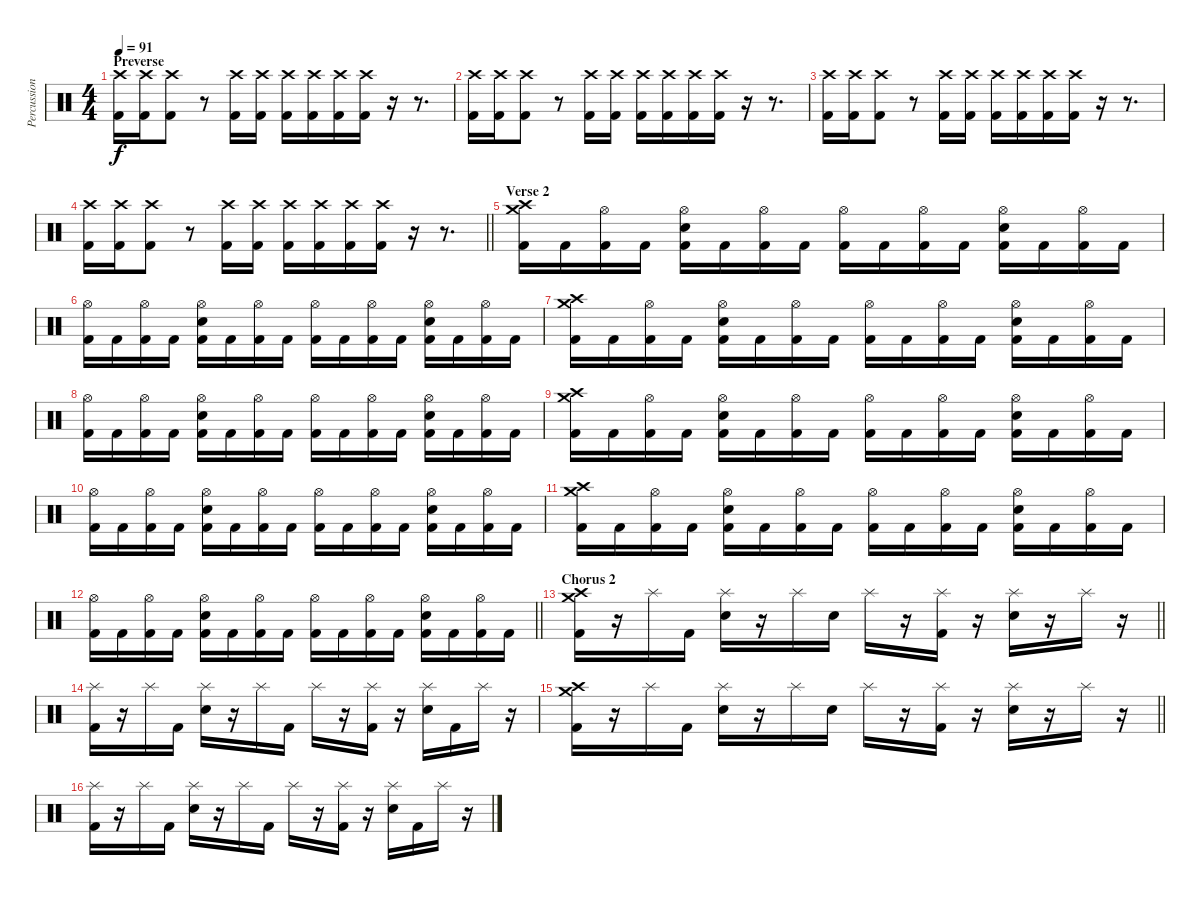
\track ("Percussion" "Percussion") {instrument percussion}
\staff {score}
\articulation defaults
\ts (4 4)
\section ("" "Preverse")
\tempo 91
\clef neutral
\ks c
("Crash high (hit)" "Kick (hit) 2").16{dy f} ("Crash high (hit)" "Kick (hit) 2").16 ("Crash high (hit)" "Kick (hit) 2").8 r.8 ("Crash high (hit)" "Kick (hit) 2").16 ("Crash high (hit)" "Kick (hit) 2").16 ("Crash high (hit)" "Kick (hit) 2").16 ("Crash high (hit)" "Kick (hit) 2").16 ("Crash high (hit)" "Kick (hit) 2").16 ("Crash high (hit)" "Kick (hit) 2").16 r.16 r.8{d} |
("Crash high (hit)" "Kick (hit) 2").16 ("Crash high (hit)" "Kick (hit) 2").16 ("Crash high (hit)" "Kick (hit) 2").8 r.8 ("Crash high (hit)" "Kick (hit) 2").16 ("Crash high (hit)" "Kick (hit) 2").16 ("Crash high (hit)" "Kick (hit) 2").16 ("Crash high (hit)" "Kick (hit) 2").16 ("Crash high (hit)" "Kick (hit) 2").16 ("Crash high (hit)" "Kick (hit) 2").16 r.16 r.8{d} |
("Crash high (hit)" "Kick (hit) 2").16 ("Crash high (hit)" "Kick (hit) 2").16 ("Crash high (hit)" "Kick (hit) 2").8 r.8 ("Crash high (hit)" "Kick (hit) 2").16 ("Crash high (hit)" "Kick (hit) 2").16 ("Crash high (hit)" "Kick (hit) 2").16 ("Crash high (hit)" "Kick (hit) 2").16 ("Crash high (hit)" "Kick (hit) 2").16 ("Crash high (hit)" "Kick (hit) 2").16 r.16 r.8{d} |
\barLineRight lightlight
("Crash high (hit)" "Kick (hit) 2").16 ("Crash high (hit)" "Kick (hit) 2").16 ("Crash high (hit)" "Kick (hit) 2").8 r.8 ("Crash high (hit)" "Kick (hit) 2").16 ("Crash high (hit)" "Kick (hit) 2").16 ("Crash high (hit)" "Kick (hit) 2").16 ("Crash high (hit)" "Kick (hit) 2").16 ("Crash high (hit)" "Kick (hit) 2").16 ("Crash high (hit)" "Kick (hit) 2").16 r.16 r.8{d} |
\section ("" "Verse 2")
("Crash high (hit)" "Crash medium (hit)" "Kick (hit) 2").16 "Kick (hit) 2".16 ("Hi-Hat (open)" "Kick (hit) 2").16 "Kick (hit) 2".16 ("Hi-Hat (open)" "Electric Snare (hit)" "Kick (hit) 2").16 "Kick (hit) 2".16 ("Hi-Hat (open)" "Kick (hit) 2").16 "Kick (hit) 2".16 ("Hi-Hat (open)" "Kick (hit) 2").16 "Kick (hit) 2".16 ("Hi-Hat (open)" "Kick (hit) 2").16 "Kick (hit) 2".16 ("Hi-Hat (open)" "Electric Snare (hit)" "Kick (hit) 2").16 "Kick (hit) 2".16 ("Hi-Hat (open)" "Kick (hit) 2").16 "Kick (hit) 2".16 |
("Hi-Hat (open)" "Kick (hit) 2").16 "Kick (hit) 2".16 ("Hi-Hat (open)" "Kick (hit) 2").16 "Kick (hit) 2".16 ("Hi-Hat (open)" "Electric Snare (hit)" "Kick (hit) 2").16 "Kick (hit) 2".16 ("Hi-Hat (open)" "Kick (hit) 2").16 "Kick (hit) 2".16 ("Hi-Hat (open)" "Kick (hit) 2").16 "Kick (hit) 2".16 ("Hi-Hat (open)" "Kick (hit) 2").16 "Kick (hit) 2".16 ("Hi-Hat (open)" "Electric Snare (hit)" "Kick (hit) 2").16 "Kick (hit) 2".16 ("Hi-Hat (open)" "Kick (hit) 2").16 "Kick (hit) 2".16 |
("Crash high (hit)" "Crash medium (hit)" "Kick (hit) 2").16 "Kick (hit) 2".16 ("Hi-Hat (open)" "Kick (hit) 2").16 "Kick (hit) 2".16 ("Hi-Hat (open)" "Electric Snare (hit)" "Kick (hit) 2").16 "Kick (hit) 2".16 ("Hi-Hat (open)" "Kick (hit) 2").16 "Kick (hit) 2".16 ("Hi-Hat (open)" "Kick (hit) 2").16 "Kick (hit) 2".16 ("Hi-Hat (open)" "Kick (hit) 2").16 "Kick (hit) 2".16 ("Hi-Hat (open)" "Electric Snare (hit)" "Kick (hit) 2").16 "Kick (hit) 2".16 ("Hi-Hat (open)" "Kick (hit) 2").16 "Kick (hit) 2".16 |
("Hi-Hat (open)" "Kick (hit) 2").16 "Kick (hit) 2".16 ("Hi-Hat (open)" "Kick (hit) 2").16 "Kick (hit) 2".16 ("Hi-Hat (open)" "Electric Snare (hit)" "Kick (hit) 2").16 "Kick (hit) 2".16 ("Hi-Hat (open)" "Kick (hit) 2").16 "Kick (hit) 2".16 ("Hi-Hat (open)" "Kick (hit) 2").16 "Kick (hit) 2".16 ("Hi-Hat (open)" "Kick (hit) 2").16 "Kick (hit) 2".16 ("Hi-Hat (open)" "Electric Snare (hit)" "Kick (hit) 2").16 "Kick (hit) 2".16 ("Hi-Hat (open)" "Kick (hit) 2").16 "Kick (hit) 2".16 |
("Crash high (hit)" "Crash medium (hit)" "Kick (hit) 2").16 "Kick (hit) 2".16 ("Hi-Hat (open)" "Kick (hit) 2").16 "Kick (hit) 2".16 ("Hi-Hat (open)" "Electric Snare (hit)" "Kick (hit) 2").16 "Kick (hit) 2".16 ("Hi-Hat (open)" "Kick (hit) 2").16 "Kick (hit) 2".16 ("Hi-Hat (open)" "Kick (hit) 2").16 "Kick (hit) 2".16 ("Hi-Hat (open)" "Kick (hit) 2").16 "Kick (hit) 2".16 ("Hi-Hat (open)" "Electric Snare (hit)" "Kick (hit) 2").16 "Kick (hit) 2".16 ("Hi-Hat (open)" "Kick (hit) 2").16 "Kick (hit) 2".16 |
("Hi-Hat (open)" "Kick (hit) 2").16 "Kick (hit) 2".16 ("Hi-Hat (open)" "Kick (hit) 2").16 "Kick (hit) 2".16 ("Hi-Hat (open)" "Electric Snare (hit)" "Kick (hit) 2").16 "Kick (hit) 2".16 ("Hi-Hat (open)" "Kick (hit) 2").16 "Kick (hit) 2".16 ("Hi-Hat (open)" "Kick (hit) 2").16 "Kick (hit) 2".16 ("Hi-Hat (open)" "Kick (hit) 2").16 "Kick (hit) 2".16 ("Hi-Hat (open)" "Electric Snare (hit)" "Kick (hit) 2").16 "Kick (hit) 2".16 ("Hi-Hat (open)" "Kick (hit) 2").16 "Kick (hit) 2".16 |
("Crash high (hit)" "Crash medium (hit)" "Kick (hit) 2").16 "Kick (hit) 2".16 ("Hi-Hat (open)" "Kick (hit) 2").16 "Kick (hit) 2".16 ("Hi-Hat (open)" "Electric Snare (hit)" "Kick (hit) 2").16 "Kick (hit) 2".16 ("Hi-Hat (open)" "Kick (hit) 2").16 "Kick (hit) 2".16 ("Hi-Hat (open)" "Kick (hit) 2").16 "Kick (hit) 2".16 ("Hi-Hat (open)" "Kick (hit) 2").16 "Kick (hit) 2".16 ("Hi-Hat (open)" "Electric Snare (hit)" "Kick (hit) 2").16 "Kick (hit) 2".16 ("Hi-Hat (open)" "Kick (hit) 2").16 "Kick (hit) 2".16 |
\barLineRight lightlight
("Hi-Hat (open)" "Kick (hit) 2").16 "Kick (hit) 2".16 ("Hi-Hat (open)" "Kick (hit) 2").16 "Kick (hit) 2".16 ("Hi-Hat (open)" "Electric Snare (hit)" "Kick (hit) 2").16 "Kick (hit) 2".16 ("Hi-Hat (open)" "Kick (hit) 2").16 "Kick (hit) 2".16 ("Hi-Hat (open)" "Kick (hit) 2").16 "Kick (hit) 2".16 ("Hi-Hat (open)" "Kick (hit) 2").16 "Kick (hit) 2".16 ("Hi-Hat (open)" "Electric Snare (hit)" "Kick (hit) 2").16 "Kick (hit) 2".16 ("Hi-Hat (open)" "Kick (hit) 2").16 "Kick (hit) 2".16 |
\section ("" "Chorus 2")
\barLineRight lightlight
("Crash high (hit)" "Crash medium (hit)" "Kick (hit) 2").16 r.16 "Splash (hit)".16 "Kick (hit) 2".16 ("Splash (hit)" "Electric Snare (hit)").16 r.16 "Splash (hit)".16 "Electric Snare (hit)".16 "Splash (hit)".16 r.16 ("Splash (hit)" "Kick (hit) 2").16 r.16 ("Splash (hit)" "Electric Snare (hit)").16 r.16 "Splash (hit)".16 r.16 |
("Splash (hit)" "Kick (hit) 2").16 r.16 "Splash (hit)".16 "Kick (hit) 2".16 ("Splash (hit)" "Electric Snare (hit)").16 r.16 "Splash (hit)".16 "Kick (hit) 2".16 "Splash (hit)".16 r.16 ("Splash (hit)" "Kick (hit) 2").16 r.16 ("Splash (hit)" "Electric Snare (hit)").16 "Kick (hit) 2".16 "Splash (hit)".16 r.16 |
\barLineRight lightlight
("Crash high (hit)" "Crash medium (hit)" "Kick (hit) 2").16 r.16 "Splash (hit)".16 "Kick (hit) 2".16 ("Splash (hit)" "Electric Snare (hit)").16 r.16 "Splash (hit)".16 "Electric Snare (hit)".16 "Splash (hit)".16 r.16 ("Splash (hit)" "Kick (hit) 2").16 r.16 ("Splash (hit)" "Electric Snare (hit)").16 r.16 "Splash (hit)".16 r.16 |
("Splash (hit)" "Kick (hit) 2").16 r.16 "Splash (hit)".16 "Kick (hit) 2".16 ("Splash (hit)" "Electric Snare (hit)").16 r.16 "Splash (hit)".16 "Kick (hit) 2".16 "Splash (hit)".16 r.16 ("Splash (hit)" "Kick (hit) 2").16 r.16 ("Splash (hit)" "Electric Snare (hit)").16 "Kick (hit) 2".16 "Splash (hit)".16 r.16
